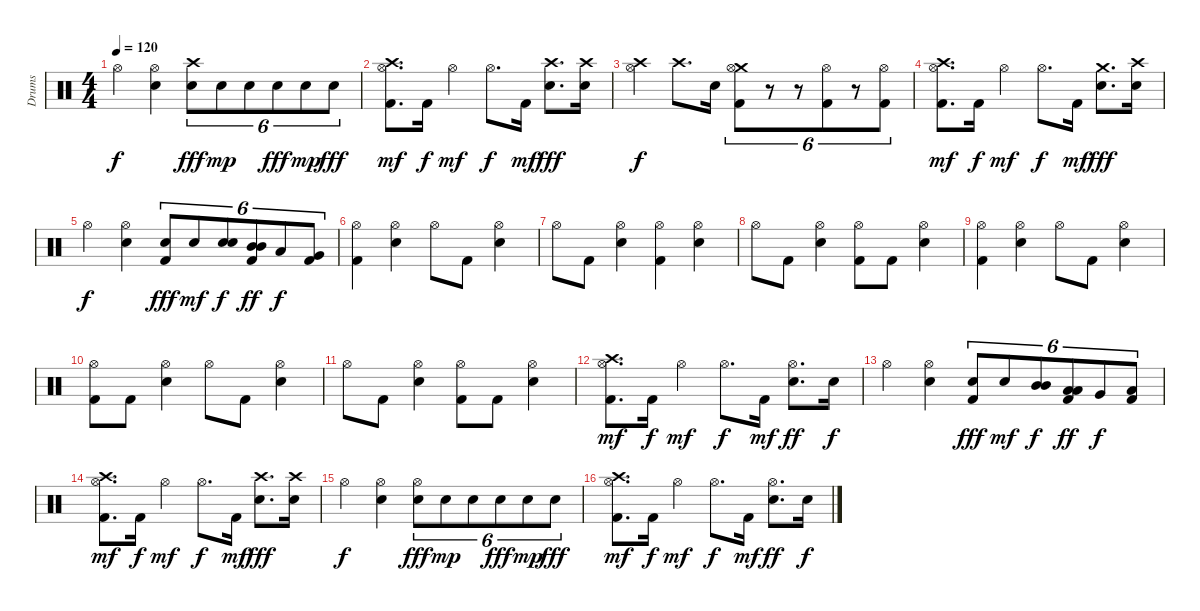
\track ("Drums" "Drums") {instrument percussion}
\staff {score}
\articulation defaults
\ts (4 4)
\tempo 120
\clef neutral
\ks c "Hi-Hat (open)".4{dy f}
("Hi-Hat (open)" "Snare (hit) 2").4 ("Crash high (hit)" "Snare (hit) 2").8{tu (6 4) dy fff} "Snare (hit) 2".8{tu (6 4) dy mp} "Snare (hit) 2".8{tu (6 4)} "Snare (hit) 2".8{tu (6 4) dy fff} "Snare (hit) 2".8{tu (6 4) dy mp} "Snare (hit) 2".8{tu (6 4) dy fff} |
("Hi-Hat (open)" "Crash high (hit)" "Kick (hit) 2").8{d dy mf} "Kick (hit) 2".16{dy f} "Hi-Hat (open)".4{dy mf} "Hi-Hat (open)".8{d dy f} "Kick (hit) 2".16{dy mf} ("Crash high (hit)" "Snare (hit) 2").8{d dy fff} ("Crash high (hit)" "Snare (hit) 2").16 |
("Hi-Hat (open)" "Crash high (hit)").4{dy f} "Crash high (hit)".8{d} "Snare (hit) 2".16 ("Crash medium (hit)" "Hi-Hat (open)" "Kick (hit) 2").8{tu (6 4) bd 60} r.8{tu (6 4)} r.8{tu (6 4)} ("Hi-Hat (open)" "Kick (hit) 2").8{tu (6 4) bd 120} r.8{tu (6 4)} ("Hi-Hat (open)" "Kick (hit) 2").8{tu (6 4)} |
("Hi-Hat (open)" "Crash high (hit)" "Kick (hit) 2").8{d dy mf} "Kick (hit) 2".16{dy f} "Hi-Hat (open)".4{dy mf} "Hi-Hat (open)".8{d dy f} "Kick (hit) 2".16{dy mf} ("Crash medium (hit)" "Snare (hit) 2").8{d dy fff} ("Crash high (hit)" "Snare (hit) 2").16 |
"Hi-Hat (open)".4{dy f} ("Hi-Hat (open)" "Snare (hit) 2").4 ("Snare (hit) 2" "Kick (hit) 2").8{tu (6 4) bd 60 dy fff} "Snare (hit) 2".8{tu (6 4) dy mf} ("Snare (hit) 2" "Snare (hit) 2").8{tu (6 4) bd 120 dy f} ("Mid Tom (hit)" "Mid Tom (hit)" "Kick (hit) 2").8{tu (6 4) bd 120 dy ff} "Low Tom (hit)".8{tu (6 4) dy f} ("Very Low Tom (hit)" "Kick (hit) 2").8{tu (6 4)} |
("Hi-Hat (open)" "Kick (hit) 2").4 ("Hi-Hat (open)" "Electric Snare (hit)").4 "Hi-Hat (open)".8 "Kick (hit) 2".8 ("Hi-Hat (open)" "Electric Snare (hit)").4 |
"Hi-Hat (open)".8 "Kick (hit) 2".8 ("Hi-Hat (open)" "Electric Snare (hit)").4 ("Hi-Hat (open)" "Kick (hit) 2").4 ("Hi-Hat (open)" "Electric Snare (hit)").4 |
"Hi-Hat (open)".8 "Kick (hit) 2".8 ("Hi-Hat (open)" "Electric Snare (hit)").4 ("Hi-Hat (open)" "Kick (hit) 2").8 "Kick (hit) 2".8 ("Hi-Hat (open)" "Electric Snare (hit)").4 |
("Hi-Hat (open)" "Kick (hit) 2").4 ("Hi-Hat (open)" "Electric Snare (hit)").4 "Hi-Hat (open)".8 "Kick (hit) 2".8 ("Hi-Hat (open)" "Electric Snare (hit)").4 |
("Hi-Hat (open)" "Kick (hit) 2").8 "Kick (hit) 2".8 ("Hi-Hat (open)" "Electric Snare (hit)").4 "Hi-Hat (open)".8 "Kick (hit) 2".8 ("Hi-Hat (open)" "Electric Snare (hit)").4 |
"Hi-Hat (open)".8 "Kick (hit) 2".8 ("Hi-Hat (open)" "Electric Snare (hit)").4 ("Hi-Hat (open)" "Kick (hit) 2").8 "Kick (hit) 2".8 ("Hi-Hat (open)" "Electric Snare (hit)").4 |
("Hi-Hat (open)" "Crash high (hit)" "Kick (hit) 2").8{d dy mf} "Kick (hit) 2".16{dy f} "Hi-Hat (open)".4{dy mf} "Hi-Hat (open)".8{d dy f} "Kick (hit) 2".16{dy mf} ("Hi-Hat (open)" "Snare (hit) 2").8{d dy ff} "Snare (hit) 2".16{dy f} |
"Hi-Hat (open)".4 ("Hi-Hat (open)" "Snare (hit) 2").4 ("Snare (hit) 2" "Kick (hit) 2").8{tu (6 4) bd 60 dy fff} "Snare (hit) 2".8{tu (6 4) dy mf} ("Mid Tom (hit)" "Mid Tom (hit)").8{tu (6 4) bd 120 dy f} ("Low Tom (hit)" "Low Tom (hit)" "Kick (hit) 2").8{tu (6 4) bd 120 dy ff} "Very Low Tom (hit)".8{tu (6 4) dy f} ("Low Floor Tom (hit)" "Kick (hit) 2").8{tu (6 4)} |
("Hi-Hat (open)" "Crash high (hit)" "Kick (hit) 2").8{d dy mf} "Kick (hit) 2".16{dy f} "Hi-Hat (open)".4{dy mf} "Hi-Hat (open)".8{d dy f} "Kick (hit) 2".16{dy mf} ("Crash high (hit)" "Snare (hit) 2").8{d dy fff} ("Crash high (hit)" "Snare (hit) 2").16 |
"Hi-Hat (open)".4{dy f} ("Hi-Hat (open)" "Snare (hit) 2").4 ("Hi-Hat (open)" "Snare (hit) 2").8{tu (6 4) dy fff} "Snare (hit) 2".8{tu (6 4) dy mp} "Snare (hit) 2".8{tu (6 4)} "Snare (hit) 2".8{tu (6 4) dy fff} "Snare (hit) 2".8{tu (6 4) dy mp} "Snare (hit) 2".8{tu (6 4) dy fff} |
("Hi-Hat (open)" "Crash high (hit)" "Kick (hit) 2").8{d dy mf} "Kick (hit) 2".16{dy f} "Hi-Hat (open)".4{dy mf} "Hi-Hat (open)".8{d dy f} "Kick (hit) 2".16{dy mf} ("Hi-Hat (open)" "Snare (hit) 2").8{d dy ff} "Snare (hit) 2".16{dy f}
